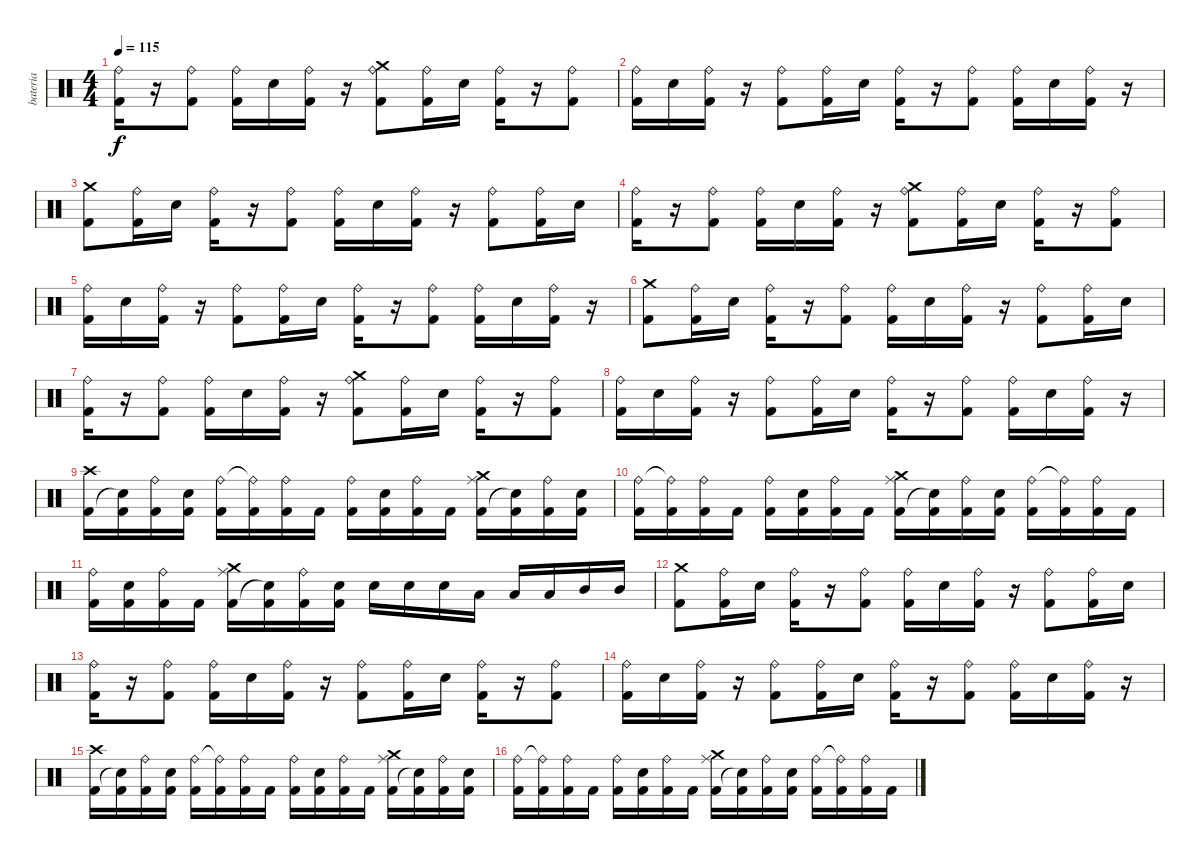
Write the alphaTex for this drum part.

\track ("bateria" "bateria") {mute instrument percussion}
\staff {score}
\articulation defaults
\ts (4 4)
\tempo 115
\clef neutral
\ks c
("Ride (bell)" "Kick (hit) 2").16{dy f} r.16 ("Kick (hit) 2" "Ride (bell)").8 ("Kick (hit) 2" "Ride (bell)").16 "Electric Snare (hit)".16 ("Ride (bell)" "Kick (hit) 2").16 r.16 ("Kick (hit) 2" "Ride (bell)" "Crash medium (hit)").8 ("Kick (hit) 2" "Ride (bell)").16 "Electric Snare (hit)".16 ("Ride (bell)" "Kick (hit) 2").16 r.16 ("Kick (hit) 2" "Ride (bell)").8 |
("Kick (hit) 2" "Ride (bell)").16 "Electric Snare (hit)".16 ("Kick (hit) 2" "Ride (bell)").16 r.16 ("Kick (hit) 2" "Ride (bell)").8 ("Kick (hit) 2" "Ride (bell)").16 "Electric Snare (hit)".16 ("Kick (hit) 2" "Ride (bell)").16 r.16 ("Kick (hit) 2" "Ride (bell)").8 ("Kick (hit) 2" "Ride (bell)").16 "Electric Snare (hit)".16 ("Kick (hit) 2" "Ride (bell)").16 r.16 |
("Kick (hit) 2" "Crash medium (hit)").8 ("Kick (hit) 2" "Ride (bell)").16 "Electric Snare (hit)".16 ("Kick (hit) 2" "Ride (bell)").16 r.16 ("Kick (hit) 2" "Ride (bell)").8 ("Kick (hit) 2" "Ride (bell)").16 "Electric Snare (hit)".16 ("Kick (hit) 2" "Ride (bell)").16 r.16 ("Kick (hit) 2" "Ride (bell)").8 ("Kick (hit) 2" "Ride (bell)").16 "Electric Snare (hit)".16 |
("Ride (bell)" "Kick (hit) 2").16 r.16 ("Kick (hit) 2" "Ride (bell)").8 ("Kick (hit) 2" "Ride (bell)").16 "Electric Snare (hit)".16 ("Ride (bell)" "Kick (hit) 2").16 r.16 ("Kick (hit) 2" "Ride (bell)" "Crash medium (hit)").8 ("Kick (hit) 2" "Ride (bell)").16 "Electric Snare (hit)".16 ("Ride (bell)" "Kick (hit) 2").16 r.16 ("Kick (hit) 2" "Ride (bell)").8 |
("Kick (hit) 2" "Ride (bell)").16 "Electric Snare (hit)".16 ("Kick (hit) 2" "Ride (bell)").16 r.16 ("Kick (hit) 2" "Ride (bell)").8 ("Kick (hit) 2" "Ride (bell)").16 "Electric Snare (hit)".16 ("Kick (hit) 2" "Ride (bell)").16 r.16 ("Kick (hit) 2" "Ride (bell)").8 ("Kick (hit) 2" "Ride (bell)").16 "Electric Snare (hit)".16 ("Kick (hit) 2" "Ride (bell)").16 r.16 |
("Kick (hit) 2" "Crash medium (hit)").8 ("Kick (hit) 2" "Ride (bell)").16 "Electric Snare (hit)".16 ("Kick (hit) 2" "Ride (bell)").16 r.16 ("Kick (hit) 2" "Ride (bell)").8 ("Kick (hit) 2" "Ride (bell)").16 "Electric Snare (hit)".16 ("Kick (hit) 2" "Ride (bell)").16 r.16 ("Kick (hit) 2" "Ride (bell)").8 ("Kick (hit) 2" "Ride (bell)").16 "Electric Snare (hit)".16 |
("Ride (bell)" "Kick (hit) 2").16 r.16 ("Kick (hit) 2" "Ride (bell)").8 ("Kick (hit) 2" "Ride (bell)").16 "Electric Snare (hit)".16 ("Ride (bell)" "Kick (hit) 2").16 r.16 ("Kick (hit) 2" "Ride (bell)" "Crash medium (hit)").8 ("Kick (hit) 2" "Ride (bell)").16 "Electric Snare (hit)".16 ("Ride (bell)" "Kick (hit) 2").16 r.16 ("Kick (hit) 2" "Ride (bell)").8 |
("Kick (hit) 2" "Ride (bell)").16 "Electric Snare (hit)".16 ("Kick (hit) 2" "Ride (bell)").16 r.16 ("Kick (hit) 2" "Ride (bell)").8 ("Kick (hit) 2" "Ride (bell)").16 "Electric Snare (hit)".16 ("Kick (hit) 2" "Ride (bell)").16 r.16 ("Kick (hit) 2" "Ride (bell)").8 ("Kick (hit) 2" "Ride (bell)").16 "Electric Snare (hit)".16 ("Kick (hit) 2" "Ride (bell)").16 r.16 |
("Crash high (hit)" "Kick (hit) 2").16 ("Kick (hit) 2" "Snare (hit)"{t}).16 ("Ride (bell)" "Kick (hit) 2").16 ("Electric Snare (hit)" "Kick (hit) 2").16 ("Ride (bell)" "Kick (hit) 2").16 ("Ride (bell)"{t} "Kick (hit) 2").16 ("Kick (hit) 2" "Ride (bell)").16 "Kick (hit) 2".16 ("Ride (bell)" "Kick (hit) 2").16 ("Electric Snare (hit)" "Kick (hit) 2").16 ("Kick (hit) 2" "Ride (bell)").16 "Kick (hit) 2".16 ("Ride (middle)" "Kick (hit) 2" "Crash medium (hit)").16 ("Kick (hit) 2" "Snare (hit)"{t}).16 ("Ride (bell)" "Kick (hit) 2").16 ("Electric Snare (hit)" "Kick (hit) 2").16 |
("Ride (bell)" "Kick (hit) 2").16 ("Ride (bell)"{t} "Kick (hit) 2").16 ("Kick (hit) 2" "Ride (bell)").16 "Kick (hit) 2".16 ("Ride (bell)" "Kick (hit) 2").16 ("Electric Snare (hit)" "Kick (hit) 2").16 ("Kick (hit) 2" "Ride (bell)").16 "Kick (hit) 2".16 ("Ride (middle)" "Kick (hit) 2" "Crash medium (hit)").16 ("Kick (hit) 2" "Snare (hit)"{t}).16 ("Ride (bell)" "Kick (hit) 2").16 ("Electric Snare (hit)" "Kick (hit) 2").16 ("Ride (bell)" "Kick (hit) 2").16 ("Ride (bell)"{t} "Kick (hit) 2").16 ("Kick (hit) 2" "Ride (bell)").16 "Kick (hit) 2".16 |
("Ride (bell)" "Kick (hit) 2").16 ("Electric Snare (hit)" "Kick (hit) 2").16 ("Kick (hit) 2" "Ride (bell)").16 "Kick (hit) 2".16 ("Ride (middle)" "Kick (hit) 2" "Crash medium (hit)").16 ("Kick (hit) 2" "Snare (hit)"{t}).16 ("Ride (bell)" "Kick (hit) 2").16 ("Electric Snare (hit)" "Kick (hit) 2").16 "Snare (hit) 2".16 "Snare (hit) 2".16 "Snare (hit) 2".16 "Low Tom (hit)".16 "Low Tom (hit)".16 "Low Tom (hit)".16 "Mid Tom (hit)".16 "Mid Tom (hit)".16 |
("Kick (hit) 2" "Crash medium (hit)").8 ("Kick (hit) 2" "Ride (bell)").16 "Electric Snare (hit)".16 ("Kick (hit) 2" "Ride (bell)").16 r.16 ("Kick (hit) 2" "Ride (bell)").8 ("Kick (hit) 2" "Ride (bell)").16 "Electric Snare (hit)".16 ("Kick (hit) 2" "Ride (bell)").16 r.16 ("Kick (hit) 2" "Ride (bell)").8 ("Kick (hit) 2" "Ride (bell)").16 "Electric Snare (hit)".16 |
("Ride (bell)" "Kick (hit) 2").16 r.16 ("Kick (hit) 2" "Ride (bell)").8 ("Kick (hit) 2" "Ride (bell)").16 "Electric Snare (hit)".16 ("Ride (bell)" "Kick (hit) 2").16 r.16 ("Kick (hit) 2" "Ride (bell)").8 ("Kick (hit) 2" "Ride (bell)").16 "Electric Snare (hit)".16 ("Ride (bell)" "Kick (hit) 2").16 r.16 ("Kick (hit) 2" "Ride (bell)").8 |
("Kick (hit) 2" "Ride (bell)").16 "Electric Snare (hit)".16 ("Kick (hit) 2" "Ride (bell)").16 r.16 ("Kick (hit) 2" "Ride (bell)").8 ("Kick (hit) 2" "Ride (bell)").16 "Electric Snare (hit)".16 ("Kick (hit) 2" "Ride (bell)").16 r.16 ("Kick (hit) 2" "Ride (bell)").8 ("Kick (hit) 2" "Ride (bell)").16 "Electric Snare (hit)".16 ("Kick (hit) 2" "Ride (bell)").16 r.16 |
("Crash high (hit)" "Kick (hit) 2").16 ("Kick (hit) 2" "Snare (hit)"{t}).16 ("Ride (bell)" "Kick (hit) 2").16 ("Electric Snare (hit)" "Kick (hit) 2").16 ("Ride (bell)" "Kick (hit) 2").16 ("Ride (bell)"{t} "Kick (hit) 2").16 ("Kick (hit) 2" "Ride (bell)").16 "Kick (hit) 2".16 ("Ride (bell)" "Kick (hit) 2").16 ("Electric Snare (hit)" "Kick (hit) 2").16 ("Kick (hit) 2" "Ride (bell)").16 "Kick (hit) 2".16 ("Ride (middle)" "Kick (hit) 2" "Crash medium (hit)").16 ("Kick (hit) 2" "Snare (hit)"{t}).16 ("Ride (bell)" "Kick (hit) 2").16 ("Electric Snare (hit)" "Kick (hit) 2").16 |
("Ride (bell)" "Kick (hit) 2").16 ("Ride (bell)"{t} "Kick (hit) 2").16 ("Kick (hit) 2" "Ride (bell)").16 "Kick (hit) 2".16 ("Ride (bell)" "Kick (hit) 2").16 ("Electric Snare (hit)" "Kick (hit) 2").16 ("Kick (hit) 2" "Ride (bell)").16 "Kick (hit) 2".16 ("Ride (middle)" "Kick (hit) 2" "Crash medium (hit)").16 ("Kick (hit) 2" "Snare (hit)"{t}).16 ("Ride (bell)" "Kick (hit) 2").16 ("Electric Snare (hit)" "Kick (hit) 2").16 ("Ride (bell)" "Kick (hit) 2").16 ("Ride (bell)"{t} "Kick (hit) 2").16 ("Kick (hit) 2" "Ride (bell)").16 "Kick (hit) 2".16
